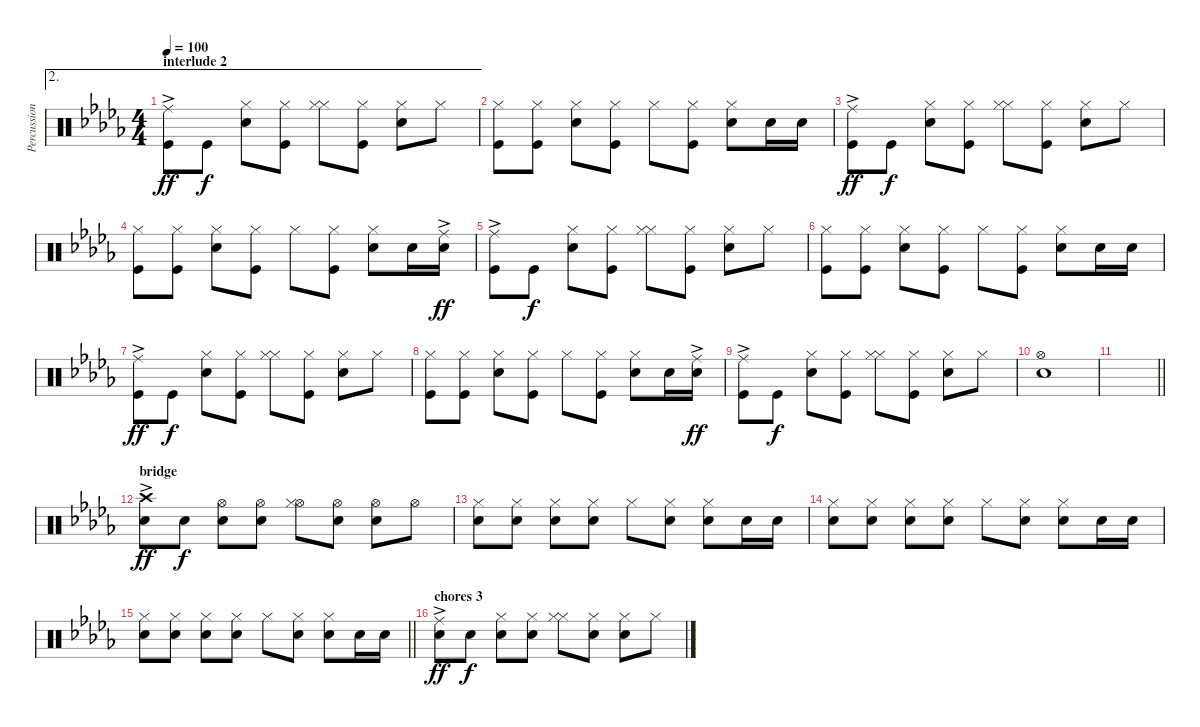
\track ("Percussion( mike mamillin)" "Percussion") {instrument percussion}
\staff {score}
\articulation defaults
\ae 2
\ts (4 4)
\section ("" "interlude 2")
\tempo 100
\clef neutral
\ks db
("Ride (middle)"{ac} "Kick (hit)").8{dy ff} "Kick (hit)".8{dy f} ("Hi-Hat (closed)" "Snare (hit) 2").8 ("Hi-Hat (closed)" "Kick (hit)").8 ("Hi-Hat (closed)" "Hi-Hat (closed)").8 ("Hi-Hat (closed)" "Kick (hit)").8 ("Hi-Hat (closed)" "Snare (hit) 2").8 "Hi-Hat (closed)".8 |
("Hi-Hat (closed)" "Kick (hit)").8 ("Hi-Hat (closed)" "Kick (hit)").8 ("Hi-Hat (closed)" "Snare (hit) 2").8 ("Hi-Hat (closed)" "Kick (hit)").8 "Hi-Hat (closed)".8 ("Hi-Hat (closed)" "Kick (hit)").8 ("Hi-Hat (closed)" "Snare (hit) 2").8 "Snare (hit) 2".16 "Snare (hit) 2".16 |
("Ride (middle)"{ac} "Kick (hit)").8{dy ff} "Kick (hit)".8{dy f} ("Hi-Hat (closed)" "Snare (hit) 2").8 ("Hi-Hat (closed)" "Kick (hit)").8 ("Hi-Hat (closed)" "Hi-Hat (closed)").8 ("Hi-Hat (closed)" "Kick (hit)").8 ("Hi-Hat (closed)" "Snare (hit) 2").8 "Hi-Hat (closed)".8 |
("Hi-Hat (closed)" "Kick (hit)").8 ("Hi-Hat (closed)" "Kick (hit)").8 ("Hi-Hat (closed)" "Snare (hit) 2").8 ("Hi-Hat (closed)" "Kick (hit)").8 "Hi-Hat (closed)".8 ("Hi-Hat (closed)" "Kick (hit)").8 ("Hi-Hat (closed)" "Snare (hit) 2").8 "Snare (hit) 2".16 ("Ride (middle)"{ac} "Snare (hit) 2").16{dy ff} |
("Ride (middle)"{ac} "Kick (hit)").8 "Kick (hit)".8{dy f} ("Hi-Hat (closed)" "Snare (hit) 2").8 ("Hi-Hat (closed)" "Kick (hit)").8 ("Hi-Hat (closed)" "Hi-Hat (closed)").8 ("Hi-Hat (closed)" "Kick (hit)").8 ("Hi-Hat (closed)" "Snare (hit) 2").8 "Hi-Hat (closed)".8 |
("Hi-Hat (closed)" "Kick (hit)").8 ("Hi-Hat (closed)" "Kick (hit)").8 ("Hi-Hat (closed)" "Snare (hit) 2").8 ("Hi-Hat (closed)" "Kick (hit)").8 "Hi-Hat (closed)".8 ("Hi-Hat (closed)" "Kick (hit)").8 ("Hi-Hat (closed)" "Snare (hit) 2").8 "Snare (hit) 2".16 "Snare (hit) 2".16 |
("Ride (middle)"{ac} "Kick (hit)").8{dy ff} "Kick (hit)".8{dy f} ("Hi-Hat (closed)" "Snare (hit) 2").8 ("Hi-Hat (closed)" "Kick (hit)").8 ("Hi-Hat (closed)" "Hi-Hat (closed)").8 ("Hi-Hat (closed)" "Kick (hit)").8 ("Hi-Hat (closed)" "Snare (hit) 2").8 "Hi-Hat (closed)".8 |
("Hi-Hat (closed)" "Kick (hit)").8 ("Hi-Hat (closed)" "Kick (hit)").8 ("Hi-Hat (closed)" "Snare (hit) 2").8 ("Hi-Hat (closed)" "Kick (hit)").8 "Hi-Hat (closed)".8 ("Hi-Hat (closed)" "Kick (hit)").8 ("Hi-Hat (closed)" "Snare (hit) 2").8 "Snare (hit) 2".16 ("Ride (middle)"{ac} "Snare (hit) 2").16{dy ff} |
("Ride (middle)"{ac} "Kick (hit)").8 "Kick (hit)".8{dy f} ("Hi-Hat (closed)" "Snare (hit) 2").8 ("Hi-Hat (closed)" "Kick (hit)").8 ("Hi-Hat (closed)" "Hi-Hat (closed)").8 ("Hi-Hat (closed)" "Kick (hit)").8 ("Hi-Hat (closed)" "Snare (hit) 2").8 "Hi-Hat (closed)".8 |
("Hi-Hat (open)" "Snare (hit) 2").1 |
\barLineRight lightlight
|
\section ("" "bridge")
("Crash high (hit)"{ac} "Electric Snare (hit)").8{dy ff} "Electric Snare (hit)".8{dy f} ("Hi-Hat (open)" "Snare (hit) 2").8 ("Hi-Hat (open)" "Electric Snare (hit)").8 ("Hi-Hat (open)" "Hi-Hat (closed)").8 ("Hi-Hat (open)" "Electric Snare (hit)").8 ("Hi-Hat (open)" "Snare (hit) 2").8 "Hi-Hat (open)".8 |
("Hi-Hat (closed)" "Electric Snare (hit)").8 ("Hi-Hat (closed)" "Electric Snare (hit)").8 ("Hi-Hat (closed)" "Snare (hit) 2").8 ("Hi-Hat (closed)" "Electric Snare (hit)").8 "Hi-Hat (closed)".8 ("Hi-Hat (closed)" "Electric Snare (hit)").8 ("Hi-Hat (closed)" "Snare (hit) 2").8 "Snare (hit) 2".16 "Snare (hit) 2".16 |
("Hi-Hat (closed)" "Electric Snare (hit)").8 ("Hi-Hat (closed)" "Electric Snare (hit)").8 ("Hi-Hat (closed)" "Snare (hit) 2").8 ("Hi-Hat (closed)" "Electric Snare (hit)").8 "Hi-Hat (closed)".8 ("Hi-Hat (closed)" "Electric Snare (hit)").8 ("Hi-Hat (closed)" "Snare (hit) 2").8 "Snare (hit) 2".16 "Snare (hit) 2".16 |
\barLineRight lightlight
("Hi-Hat (closed)" "Electric Snare (hit)").8 ("Hi-Hat (closed)" "Electric Snare (hit)").8 ("Hi-Hat (closed)" "Snare (hit) 2").8 ("Hi-Hat (closed)" "Electric Snare (hit)").8 "Hi-Hat (closed)".8 ("Hi-Hat (closed)" "Electric Snare (hit)").8 ("Hi-Hat (closed)" "Snare (hit) 2").8 "Snare (hit) 2".16 "Snare (hit) 2".16 |
\section ("" "chores 3")
("Ride (middle)"{ac} "Electric Snare (hit)").8{dy ff} "Electric Snare (hit)".8{dy f} ("Hi-Hat (closed)" "Snare (hit) 2").8 ("Hi-Hat (closed)" "Electric Snare (hit)").8 ("Hi-Hat (closed)" "Hi-Hat (closed)").8 ("Hi-Hat (closed)" "Electric Snare (hit)").8 ("Hi-Hat (closed)" "Snare (hit) 2").8 "Hi-Hat (closed)".8
